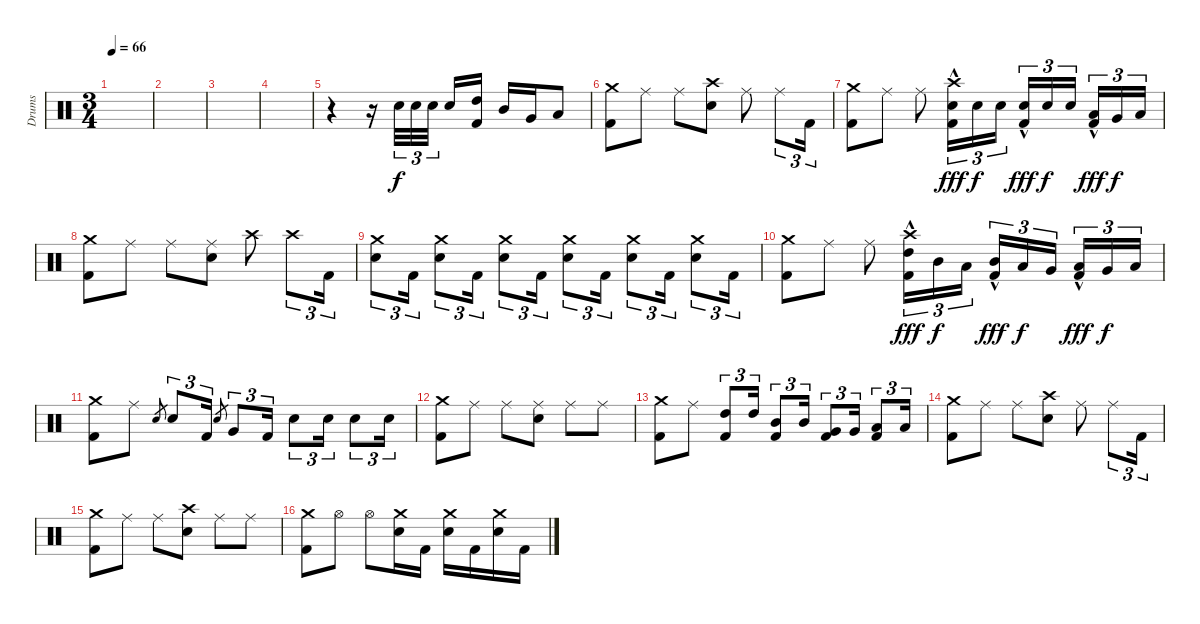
\track ("Drums" "Drums") {instrument percussion}
\staff {score}
\articulation defaults
\ts (3 4)
\tempo 66
\clef neutral
\ks c
|
|
|
|
r.4 r.16 "Electric Snare (hit)".32{tu (3 2)} "Electric Snare (hit)".32{tu (3 2)} "Electric Snare (hit)".32{tu (3 2) beam splitsecondary} "Electric Snare (hit)".16 ("High Tom (hit)" "Kick (hit) 2").16 "Mid Tom (hit)".16 "Very Low Tom (hit)".16 "Low Floor Tom (hit)".8 |
("Crash medium (hit)" "Kick (hit) 2").8 "Ride (middle)".8 "Ride (middle)".8 ("Crash high (hit)" "Electric Snare (hit)").8 "Ride (middle)".8 "Ride (middle)".8{tu (3 2)} "Kick (hit) 2".16{tu (3 2)} |
("Crash medium (hit)" "Kick (hit) 2").8 "Ride (middle)".8 "Ride (middle)".8 ("Crash high (hit)" "Electric Snare (hit)" "Kick (hit) 2"{hac}).16{tu (3 2) dy fff} "Electric Snare (hit)".16{tu (3 2) dy f} "Electric Snare (hit)".16{tu (3 2)} ("Electric Snare (hit)" "Kick (hit) 2"{hac}).16{tu (3 2) dy fff} "Electric Snare (hit)".16{tu (3 2) dy f} "Electric Snare (hit)".16{tu (3 2) beam splitsecondary} ("Low Tom (hit)" "Kick (hit) 2"{hac}).16{tu (3 2) dy fff} "Very Low Tom (hit)".16{tu (3 2) dy f} "Low Floor Tom (hit)".16{tu (3 2)} |
("Crash medium (hit)" "Kick (hit) 2").8 "Ride (middle)".8 "Ride (middle)".8 ("Ride (middle)" "Electric Snare (hit)").8 "Crash high (hit)".8 "Crash high (hit)".8{tu (3 2)} "Kick (hit) 2".16{tu (3 2)} |
("Crash medium (hit)" "Electric Snare (hit)").8{tu (3 2)} "Kick (hit) 2".16{tu (3 2)} ("Crash medium (hit)" "Electric Snare (hit)").8{tu (3 2)} "Kick (hit) 2".16{tu (3 2)} ("Crash medium (hit)" "Electric Snare (hit)").8{tu (3 2)} "Kick (hit) 2".16{tu (3 2)} ("Crash medium (hit)" "Electric Snare (hit)").8{tu (3 2)} "Kick (hit) 2".16{tu (3 2)} ("Crash medium (hit)" "Electric Snare (hit)").8{tu (3 2)} "Kick (hit) 2".16{tu (3 2)} ("Crash medium (hit)" "Electric Snare (hit)").8{tu (3 2)} "Kick (hit) 2".16{tu (3 2)} |
("Crash medium (hit)" "Kick (hit) 2").8 "Ride (middle)".8 "Ride (middle)".8 ("Crash high (hit)" "High Tom (hit)" "Kick (hit) 2"{hac}).16{tu (3 2) dy fff} "Mid Tom (hit)".16{tu (3 2) dy f} "Low Tom (hit)".16{tu (3 2)} ("Mid Tom (hit)" "Kick (hit) 2"{hac}).16{tu (3 2) dy fff} "Low Tom (hit)".16{tu (3 2) dy f} "Very Low Tom (hit)".16{tu (3 2) beam splitsecondary} ("Low Tom (hit)" "Kick (hit) 2"{hac}).16{tu (3 2) dy fff} "Very Low Tom (hit)".16{tu (3 2) dy f} "Low Floor Tom (hit)".16{tu (3 2)} |
("Crash medium (hit)" "Kick (hit) 2").8 "Ride (middle)".8 "Electric Snare (hit)".8{gr} "Electric Snare (hit)".8{tu (3 2)} "Kick (hit) 2".16{tu (3 2)} "Electric Snare (hit)".8{gr} "Very Low Tom (hit)".8{tu (3 2)} "Kick (hit) 2".16{tu (3 2)} "Electric Snare (hit)".8{tu (3 2)} "Electric Snare (hit)".16{tu (3 2)} "Electric Snare (hit)".8{tu (3 2)} "Electric Snare (hit)".16{tu (3 2)} |
("Crash medium (hit)" "Kick (hit) 2").8 "Ride (middle)".8 "Ride (middle)".8 ("Ride (middle)" "Electric Snare (hit)").8 "Ride (middle)".8 "Ride (middle)".8 |
("Crash medium (hit)" "Kick (hit) 2").8 "Ride (middle)".8 ("High Tom (hit)" "Kick (hit) 2").8{tu (3 2)} "High Tom (hit)".16{tu (3 2)} ("Mid Tom (hit)" "Kick (hit) 2").8{tu (3 2)} "Mid Tom (hit)".16{tu (3 2)} ("Very Low Tom (hit)" "Kick (hit) 2").8{tu (3 2)} "Very Low Tom (hit)".16{tu (3 2)} ("Low Floor Tom (hit)" "Kick (hit) 2").8{tu (3 2)} "Low Floor Tom (hit)".16{tu (3 2)} |
("Crash medium (hit)" "Kick (hit) 2").8 "Ride (middle)".8 "Ride (middle)".8 ("Crash high (hit)" "Electric Snare (hit)").8 "Ride (middle)".8 "Ride (middle)".8{tu (3 2)} "Kick (hit) 2".16{tu (3 2)} |
("Crash medium (hit)" "Kick (hit) 2").8 "Ride (middle)".8 "Ride (middle)".8 ("Crash high (hit)" "Electric Snare (hit)").8 "Ride (middle)".8 "Ride (middle)".8 |
("Crash medium (hit)" "Kick (hit) 2").8 "Hi-Hat (open)".8 "Hi-Hat (open)".8 ("Crash medium (hit)" "Electric Snare (hit)").16 "Kick (hit) 2".16 ("Crash medium (hit)" "Electric Snare (hit)").16 "Kick (hit) 2".16 ("Crash medium (hit)" "Electric Snare (hit)").16 "Kick (hit) 2".16
